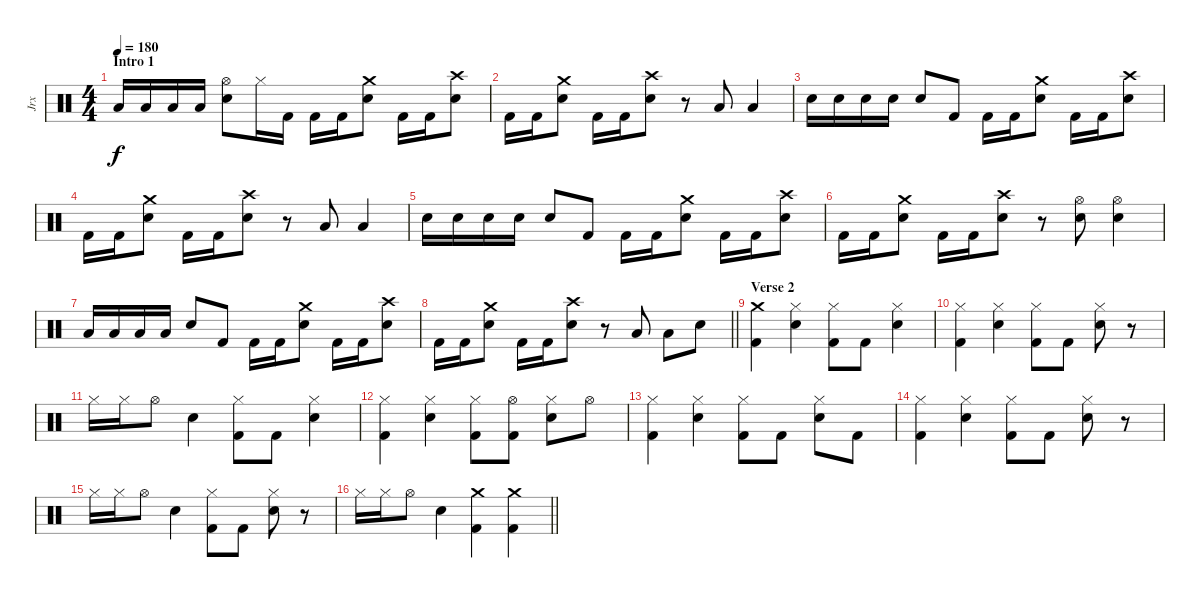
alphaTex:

\track ("Jrx" "Jrx") {instrument percussion}
\staff {score}
\articulation defaults
\ts (4 4)
\section ("" "Intro 1")
\tempo 180
\clef neutral
\ks c "Low Tom (hit)".16{dy f} "Low Tom (hit)".16 "Low Tom (hit)".16 "Low Tom (hit)".16
("Electric Snare (hit)" "Hi-Hat (open)").8 "Hi-Hat (closed)".16 "Kick (hit) 2".16 "Kick (hit) 2".16 "Kick (hit) 2".16 ("Electric Snare (hit)" "Crash medium (hit)").8 "Kick (hit) 2".16 "Kick (hit) 2".16 ("Electric Snare (hit)" "Crash high (hit)").8 |
"Kick (hit) 2".16 "Kick (hit) 2".16 ("Electric Snare (hit)" "Crash medium (hit)").8 "Kick (hit) 2".16 "Kick (hit) 2".16 ("Electric Snare (hit)" "Crash high (hit)").8 r.8 "Low Tom (hit)".8 "Low Tom (hit)".4 |
"Electric Snare (hit)".16 "Electric Snare (hit)".16 "Electric Snare (hit)".16 "Electric Snare (hit)".16 "Electric Snare (hit)".8 "Kick (hit) 2".8 "Kick (hit) 2".16 "Kick (hit) 2".16 ("Electric Snare (hit)" "Crash medium (hit)").8 "Kick (hit) 2".16 "Kick (hit) 2".16 ("Electric Snare (hit)" "Crash high (hit)").8 |
"Kick (hit) 2".16 "Kick (hit) 2".16 ("Electric Snare (hit)" "Crash medium (hit)").8 "Kick (hit) 2".16 "Kick (hit) 2".16 ("Electric Snare (hit)" "Crash high (hit)").8 r.8 "Low Tom (hit)".8 "Low Tom (hit)".4 |
"Electric Snare (hit)".16 "Electric Snare (hit)".16 "Electric Snare (hit)".16 "Electric Snare (hit)".16 "Electric Snare (hit)".8 "Kick (hit) 2".8 "Kick (hit) 2".16 "Kick (hit) 2".16 ("Electric Snare (hit)" "Crash medium (hit)").8 "Kick (hit) 2".16 "Kick (hit) 2".16 ("Electric Snare (hit)" "Crash high (hit)").8 |
"Kick (hit) 2".16 "Kick (hit) 2".16 ("Electric Snare (hit)" "Crash medium (hit)").8 "Kick (hit) 2".16 "Kick (hit) 2".16 ("Electric Snare (hit)" "Crash high (hit)").8 r.8 ("Electric Snare (hit)" "Hi-Hat (open)").8 ("Electric Snare (hit)" "Hi-Hat (open)").4 |
"Low Tom (hit)".16 "Low Tom (hit)".16 "Low Tom (hit)".16 "Low Tom (hit)".16 "Electric Snare (hit)".8 "Kick (hit) 2".8 "Kick (hit) 2".16 "Kick (hit) 2".16 ("Electric Snare (hit)" "Crash medium (hit)").8 "Kick (hit) 2".16 "Kick (hit) 2".16 ("Electric Snare (hit)" "Crash high (hit)").8 |
\barLineRight lightlight "Kick (hit) 2".16 "Kick (hit) 2".16
("Electric Snare (hit)" "Crash medium (hit)").8 "Kick (hit) 2".16 "Kick (hit) 2".16 ("Electric Snare (hit)" "Crash high (hit)").8 r.8 "Low Tom (hit)".8 "Low Tom (hit)".8 "Electric Snare (hit)".8 |
\section ("" "Verse 2")
("Kick (hit) 2" "Crash medium (hit)").4 ("Electric Snare (hit)" "Hi-Hat (closed)").4 ("Kick (hit) 2" "Hi-Hat (closed)").8 "Kick (hit) 2".8 ("Electric Snare (hit)" "Hi-Hat (closed)").4 |
("Kick (hit) 2" "Hi-Hat (closed)").4 ("Electric Snare (hit)" "Hi-Hat (closed)").4 ("Kick (hit) 2" "Hi-Hat (closed)").8 "Kick (hit) 2".8 ("Electric Snare (hit)" "Hi-Hat (closed)").8 r.8 |
"Hi-Hat (closed)".16 "Hi-Hat (closed)".16 "Hi-Hat (open)".8 "Electric Snare (hit)".4 ("Kick (hit) 2" "Hi-Hat (closed)").8 "Kick (hit) 2".8 ("Electric Snare (hit)" "Hi-Hat (closed)").4 |
("Kick (hit) 2" "Hi-Hat (closed)").4 ("Electric Snare (hit)" "Hi-Hat (closed)").4 ("Kick (hit) 2" "Hi-Hat (closed)").8 ("Kick (hit) 2" "Hi-Hat (open)").8 ("Electric Snare (hit)" "Hi-Hat (closed)").8 "Hi-Hat (open)".8 |
("Kick (hit) 2" "Hi-Hat (closed)").4 ("Electric Snare (hit)" "Hi-Hat (closed)").4 ("Kick (hit) 2" "Hi-Hat (closed)").8 "Kick (hit) 2".8 ("Electric Snare (hit)" "Hi-Hat (closed)").8 "Kick (hit) 2".8 |
("Kick (hit) 2" "Hi-Hat (closed)").4 ("Electric Snare (hit)" "Hi-Hat (closed)").4 ("Hi-Hat (closed)" "Kick (hit) 2").8 "Kick (hit) 2".8 ("Electric Snare (hit)" "Hi-Hat (closed)").8 r.8 |
"Hi-Hat (closed)".16 "Hi-Hat (closed)".16 "Hi-Hat (open)".8 "Electric Snare (hit)".4 ("Hi-Hat (closed)" "Kick (hit) 2").8 "Kick (hit) 2".8 ("Electric Snare (hit)" "Hi-Hat (closed)").8 r.8 |
\barLineRight lightlight "Hi-Hat (closed)".16 "Hi-Hat (closed)".16 "Hi-Hat (open)".8 "Electric Snare (hit)".4
("Kick (hit) 2" "Crash medium (hit)").4 ("Kick (hit) 2" "Crash medium (hit)").4
